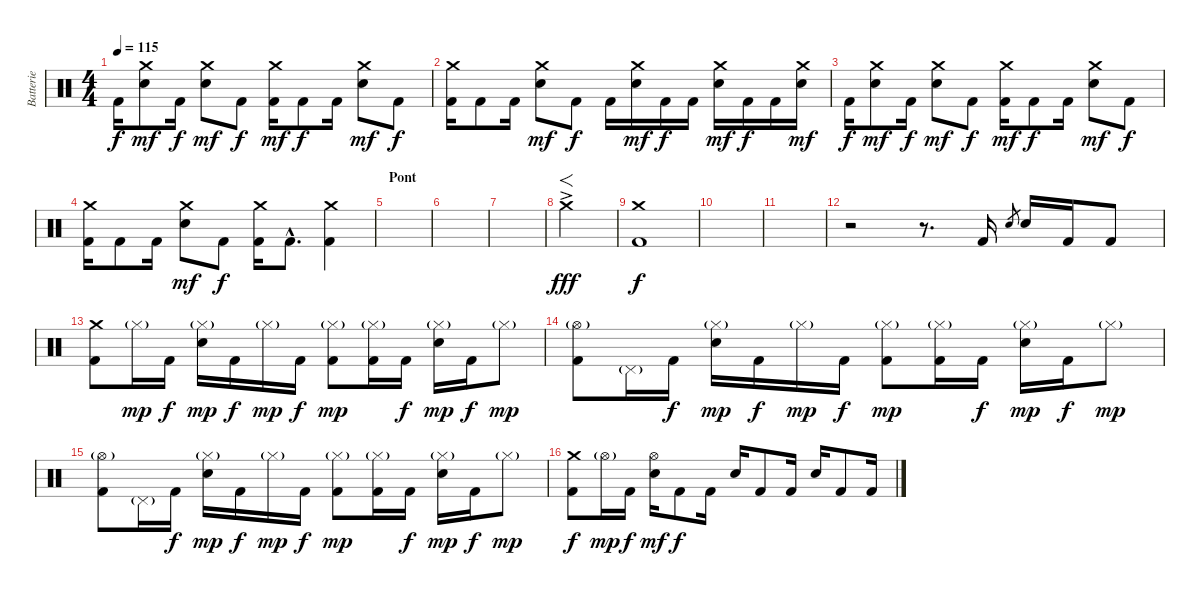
\track ("Batterie" "Batterie") {instrument percussion}
\staff {score}
\articulation defaults
\ts (4 4)
\tempo 115
\clef neutral
\ks c "Kick (hit) 2".16{dy f}
("Crash medium (hit)" "Electric Snare (hit)").8{dy mf} "Kick (hit) 2".16{dy f} ("Crash medium (hit)" "Electric Snare (hit)").8{dy mf} "Kick (hit) 2".8{dy f} ("Crash medium (hit)" "Kick (hit) 2").16{dy mf} "Kick (hit) 2".8{dy f} "Kick (hit) 2".16 ("Crash medium (hit)" "Electric Snare (hit)").8{dy mf} "Kick (hit) 2".8{dy f} |
("Crash medium (hit)" "Kick (hit) 2").16 "Kick (hit) 2".8 "Kick (hit) 2".16 ("Crash medium (hit)" "Electric Snare (hit)").8{dy mf} "Kick (hit) 2".8{dy f} "Kick (hit) 2".16 ("Crash medium (hit)" "Electric Snare (hit)").16{dy mf} "Kick (hit) 2".16{dy f} "Kick (hit) 2".16 ("Crash medium (hit)" "Electric Snare (hit)").16{dy mf} "Kick (hit) 2".16{dy f} "Kick (hit) 2".16 ("Crash medium (hit)" "Electric Snare (hit)").16{dy mf} |
"Kick (hit) 2".16{dy f} ("Crash medium (hit)" "Electric Snare (hit)").8{dy mf} "Kick (hit) 2".16{dy f} ("Crash medium (hit)" "Electric Snare (hit)").8{dy mf} "Kick (hit) 2".8{dy f} ("Crash medium (hit)" "Kick (hit) 2").16{dy mf} "Kick (hit) 2".8{dy f} "Kick (hit) 2".16 ("Crash medium (hit)" "Electric Snare (hit)").8{dy mf} "Kick (hit) 2".8{dy f} |
("Crash medium (hit)" "Kick (hit) 2").16 "Kick (hit) 2".8 "Kick (hit) 2".16 ("Crash medium (hit)" "Electric Snare (hit)").8{dy mf} "Kick (hit) 2".8{dy f} ("Crash medium (hit)" "Kick (hit) 2").16 "Kick (hit) 2"{hac}.8{d} ("Crash medium (hit)" "Kick (hit) 2").4 |
\section ("" "Pont")
|
|
|
"Crash medium (hit)"{ac}.2{f dy fff} |
("Crash medium (hit)" "Kick (hit) 2").1{dy f} |
|
|
r.2 r.8{d} "Kick (hit) 2".16 "Electric Snare (hit)".8{gr} "Electric Snare (hit)".16 "Kick (hit) 2".16 "Kick (hit) 2".8 |
("Crash medium (hit)" "Kick (hit) 2").8 "Hi-Hat (closed)"{g}.16{dy mp} "Kick (hit) 2".16{dy f} ("Hi-Hat (closed)"{g} "Electric Snare (hit)").16{dy mp} "Kick (hit) 2".16{dy f} "Hi-Hat (closed)"{g}.16{dy mp} "Kick (hit) 2".16{dy f} ("Hi-Hat (closed)"{g} "Kick (hit) 2").8{dy mp} ("Hi-Hat (closed)"{g} "Kick (hit) 2").16 "Kick (hit) 2".16{dy f} ("Hi-Hat (closed)"{g} "Electric Snare (hit)").16{dy mp} "Kick (hit) 2".16{dy f} "Hi-Hat (closed)"{g}.8{dy mp} |
("Hi-Hat (open)"{g} "Kick (hit) 2").8 "Pedal Hi-Hat (hit)"{g}.16 "Kick (hit) 2".16{dy f} ("Hi-Hat (closed)"{g} "Electric Snare (hit)").16{dy mp} "Kick (hit) 2".16{dy f} "Hi-Hat (closed)"{g}.16{dy mp} "Kick (hit) 2".16{dy f} ("Hi-Hat (closed)"{g} "Kick (hit) 2").8{dy mp} ("Hi-Hat (closed)"{g} "Kick (hit) 2").16 "Kick (hit) 2".16{dy f} ("Hi-Hat (closed)"{g} "Electric Snare (hit)").16{dy mp} "Kick (hit) 2".16{dy f} "Hi-Hat (closed)"{g}.8{dy mp} |
("Hi-Hat (open)"{g} "Kick (hit) 2").8 "Pedal Hi-Hat (hit)"{g}.16 "Kick (hit) 2".16{dy f} ("Hi-Hat (closed)"{g} "Electric Snare (hit)").16{dy mp} "Kick (hit) 2".16{dy f} "Hi-Hat (closed)"{g}.16{dy mp} "Kick (hit) 2".16{dy f} ("Hi-Hat (closed)"{g} "Kick (hit) 2").8{dy mp} ("Hi-Hat (closed)"{g} "Kick (hit) 2").16 "Kick (hit) 2".16{dy f} ("Hi-Hat (closed)"{g} "Electric Snare (hit)").16{dy mp} "Kick (hit) 2".16{dy f} "Hi-Hat (closed)"{g}.8{dy mp} |
("Crash medium (hit)" "Kick (hit) 2").8{dy f} "Hi-Hat (open)"{g}.16{dy mp} "Kick (hit) 2".16{dy f} ("Hi-Hat (open)" "Electric Snare (hit)").16{dy mf} "Kick (hit) 2".8{dy f} "Kick (hit) 2".16 "Electric Snare (hit)".16 "Kick (hit) 2".8 "Kick (hit) 2".16 "Electric Snare (hit)".16 "Kick (hit) 2".8 "Kick (hit) 2".16
